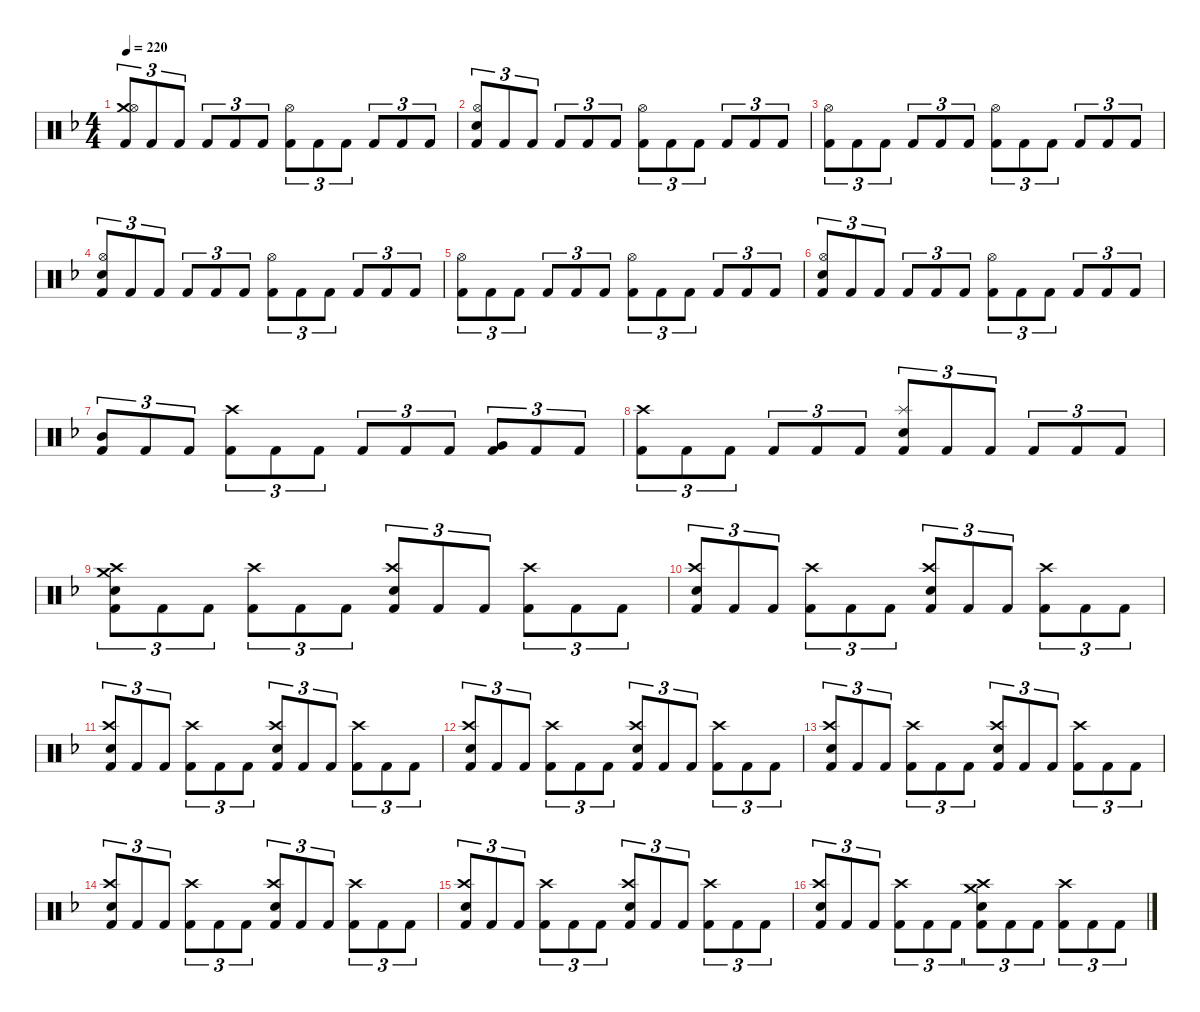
\hideDynamics
\bracketExtendMode nobrackets
\singleTrackTrackNamePolicy hidden
\multiTrackTrackNamePolicy hidden
\firstSystemTrackNameMode fullname
\firstSystemTrackNameOrientation horizontal
\otherSystemsTrackNameOrientation horizontal
\track ("Drumkit" "Drums") {instrument percussion}
\staff {score}
\articulation defaults
\ts (4 4)
\tempo 220
\clef neutral
\ks dminor
("Crash medium (hit)"{acc forcenatural} "Hi-Hat (open)"{acc forcenatural} "Kick (hit) 2"{acc forcenatural}).8{tu (3 2) dy f beam Up} "Kick (hit) 2"{acc forcenatural}.8{tu (3 2) beam Up} "Kick (hit) 2"{acc forcenatural}.8{tu (3 2) beam Up} "Kick (hit) 2"{acc forcenatural}.8{tu (3 2) beam Up} "Kick (hit) 2"{acc forcenatural}.8{tu (3 2) beam Up} "Kick (hit) 2"{acc forcenatural}.8{tu (3 2) beam Up} ("Hi-Hat (open)"{acc forcenatural} "Kick (hit) 2"{acc forcenatural}).8{tu (3 2) beam Down} "Kick (hit) 2"{acc forcenatural}.8{tu (3 2) beam Down} "Kick (hit) 2"{acc forcenatural}.8{tu (3 2) beam Down} "Kick (hit) 2"{acc forcenatural}.8{tu (3 2) beam Up} "Kick (hit) 2"{acc forcenatural}.8{tu (3 2) beam Up} "Kick (hit) 2"{acc forcenatural}.8{tu (3 2) beam Up} |
("Hi-Hat (open)"{acc forcenatural} "Snare (hit) 2"{acc forcenatural} "Kick (hit) 2"{acc forcenatural}).8{tu (3 2) beam Up} "Kick (hit) 2"{acc forcenatural}.8{tu (3 2) beam Up} "Kick (hit) 2"{acc forcenatural}.8{tu (3 2) beam Up} "Kick (hit) 2"{acc forcenatural}.8{tu (3 2) beam Up} "Kick (hit) 2"{acc forcenatural}.8{tu (3 2) beam Up} "Kick (hit) 2"{acc forcenatural}.8{tu (3 2) beam Up} ("Hi-Hat (open)"{acc forcenatural} "Kick (hit) 2"{acc forcenatural}).8{tu (3 2) beam Down} "Kick (hit) 2"{acc forcenatural}.8{tu (3 2) beam Down} "Kick (hit) 2"{acc forcenatural}.8{tu (3 2) beam Down} "Kick (hit) 2"{acc forcenatural}.8{tu (3 2) beam Up} "Kick (hit) 2"{acc forcenatural}.8{tu (3 2) beam Up} "Kick (hit) 2"{acc forcenatural}.8{tu (3 2) beam Up} |
("Hi-Hat (open)"{acc forcenatural} "Kick (hit) 2"{acc forcenatural}).8{tu (3 2) beam Down} "Kick (hit) 2"{acc forcenatural}.8{tu (3 2) beam Down} "Kick (hit) 2"{acc forcenatural}.8{tu (3 2) beam Down} "Kick (hit) 2"{acc forcenatural}.8{tu (3 2) beam Up} "Kick (hit) 2"{acc forcenatural}.8{tu (3 2) beam Up} "Kick (hit) 2"{acc forcenatural}.8{tu (3 2) beam Up} ("Hi-Hat (open)"{acc forcenatural} "Kick (hit) 2"{acc forcenatural}).8{tu (3 2) beam Down} "Kick (hit) 2"{acc forcenatural}.8{tu (3 2) beam Down} "Kick (hit) 2"{acc forcenatural}.8{tu (3 2) beam Down} "Kick (hit) 2"{acc forcenatural}.8{tu (3 2) beam Up} "Kick (hit) 2"{acc forcenatural}.8{tu (3 2) beam Up} "Kick (hit) 2"{acc forcenatural}.8{tu (3 2) beam Up} |
("Hi-Hat (open)"{acc forcenatural} "Snare (hit) 2"{acc forcenatural} "Kick (hit) 2"{acc forcenatural}).8{tu (3 2) beam Up} "Kick (hit) 2"{acc forcenatural}.8{tu (3 2) beam Up} "Kick (hit) 2"{acc forcenatural}.8{tu (3 2) beam Up} "Kick (hit) 2"{acc forcenatural}.8{tu (3 2) beam Up} "Kick (hit) 2"{acc forcenatural}.8{tu (3 2) beam Up} "Kick (hit) 2"{acc forcenatural}.8{tu (3 2) beam Up} ("Hi-Hat (open)"{acc forcenatural} "Kick (hit) 2"{acc forcenatural}).8{tu (3 2) beam Down} "Kick (hit) 2"{acc forcenatural}.8{tu (3 2) beam Down} "Kick (hit) 2"{acc forcenatural}.8{tu (3 2) beam Down} "Kick (hit) 2"{acc forcenatural}.8{tu (3 2) beam Up} "Kick (hit) 2"{acc forcenatural}.8{tu (3 2) beam Up} "Kick (hit) 2"{acc forcenatural}.8{tu (3 2) beam Up} |
("Hi-Hat (open)"{acc forcenatural} "Kick (hit) 2"{acc forcenatural}).8{tu (3 2) beam Down} "Kick (hit) 2"{acc forcenatural}.8{tu (3 2) beam Down} "Kick (hit) 2"{acc forcenatural}.8{tu (3 2) beam Down} "Kick (hit) 2"{acc forcenatural}.8{tu (3 2) beam Up} "Kick (hit) 2"{acc forcenatural}.8{tu (3 2) beam Up} "Kick (hit) 2"{acc forcenatural}.8{tu (3 2) beam Up} ("Hi-Hat (open)"{acc forcenatural} "Kick (hit) 2"{acc forcenatural}).8{tu (3 2) beam Down} "Kick (hit) 2"{acc forcenatural}.8{tu (3 2) beam Down} "Kick (hit) 2"{acc forcenatural}.8{tu (3 2) beam Down} "Kick (hit) 2"{acc forcenatural}.8{tu (3 2) beam Up} "Kick (hit) 2"{acc forcenatural}.8{tu (3 2) beam Up} "Kick (hit) 2"{acc forcenatural}.8{tu (3 2) beam Up} |
("Hi-Hat (open)"{acc forcenatural} "Snare (hit) 2"{acc forcenatural} "Kick (hit) 2"{acc forcenatural}).8{tu (3 2) beam Up} "Kick (hit) 2"{acc forcenatural}.8{tu (3 2) beam Up} "Kick (hit) 2"{acc forcenatural}.8{tu (3 2) beam Up} "Kick (hit) 2"{acc forcenatural}.8{tu (3 2) beam Up} "Kick (hit) 2"{acc forcenatural}.8{tu (3 2) beam Up} "Kick (hit) 2"{acc forcenatural}.8{tu (3 2) beam Up} ("Hi-Hat (open)"{acc forcenatural} "Kick (hit) 2"{acc forcenatural}).8{tu (3 2) beam Down} "Kick (hit) 2"{acc forcenatural}.8{tu (3 2) beam Down} "Kick (hit) 2"{acc forcenatural}.8{tu (3 2) beam Down} "Kick (hit) 2"{acc forcenatural}.8{tu (3 2) beam Up} "Kick (hit) 2"{acc forcenatural}.8{tu (3 2) beam Up} "Kick (hit) 2"{acc forcenatural}.8{tu (3 2) beam Up} |
("Mid Tom (hit)"{acc forcenatural} "Kick (hit) 2"{acc forcenatural}).8{tu (3 2) beam Up} "Kick (hit) 2"{acc forcenatural}.8{tu (3 2) beam Up} "Kick (hit) 2"{acc forcenatural}.8{tu (3 2) beam Up} ("Crash high (hit)"{acc forcenatural} "Kick (hit) 2"{acc forcenatural}).8{tu (3 2) beam Down} "Kick (hit) 2"{acc forcenatural}.8{tu (3 2) beam Down} "Kick (hit) 2"{acc forcenatural}.8{tu (3 2) beam Down} "Kick (hit) 2"{acc forcenatural}.8{tu (3 2) beam Up} "Kick (hit) 2"{acc forcenatural}.8{tu (3 2) beam Up} "Kick (hit) 2"{acc forcenatural}.8{tu (3 2) beam Up} ("Very Low Tom (hit)"{acc forcenatural} "Kick (hit) 2"{acc forcenatural}).8{tu (3 2) beam Up} "Kick (hit) 2"{acc forcenatural}.8{tu (3 2) beam Up} "Kick (hit) 2"{acc forcenatural}.8{tu (3 2) beam Up} |
("Crash high (hit)"{acc forcenatural} "Kick (hit) 2"{acc forcenatural}).8{tu (3 2) beam Down} "Kick (hit) 2"{acc forcenatural}.8{tu (3 2) beam Down} "Kick (hit) 2"{acc forcenatural}.8{tu (3 2) beam Down} "Kick (hit) 2"{acc forcenatural}.8{tu (3 2) beam Up} "Kick (hit) 2"{acc forcenatural}.8{tu (3 2) beam Up} "Kick (hit) 2"{acc forcenatural}.8{tu (3 2) beam Up} ("Splash (hit)"{acc forcenatural} "Snare (hit) 2"{acc forcenatural} "Kick (hit) 2"{acc forcenatural}).8{tu (3 2) dy mf beam Up} "Kick (hit) 2"{acc forcenatural}.8{tu (3 2) dy f beam Up} "Kick (hit) 2"{acc forcenatural}.8{tu (3 2) beam Up} "Kick (hit) 2"{acc forcenatural}.8{tu (3 2) beam Up} "Kick (hit) 2"{acc forcenatural}.8{tu (3 2) beam Up} "Kick (hit) 2"{acc forcenatural}.8{tu (3 2) beam Up} |
("Crash medium (hit)"{acc forcenatural} "Crash high (hit)"{acc forcenatural} "Snare (hit) 2"{acc forcenatural} "Kick (hit) 2"{acc forcenatural}).8{tu (3 2) beam Down} "Kick (hit) 2"{acc forcenatural}.8{tu (3 2) beam Down} "Kick (hit) 2"{acc forcenatural}.8{tu (3 2) beam Down} ("Crash high (hit)"{acc forcenatural} "Kick (hit) 2"{acc forcenatural}).8{tu (3 2) dy mp beam Down} "Kick (hit) 2"{acc forcenatural}.8{tu (3 2) dy f beam Down} "Kick (hit) 2"{acc forcenatural}.8{tu (3 2) beam Down} ("Crash high (hit)"{acc forcenatural} "Snare (hit) 2"{acc forcenatural} "Kick (hit) 2"{acc forcenatural}).8{tu (3 2) beam Up} "Kick (hit) 2"{acc forcenatural}.8{tu (3 2) beam Up} "Kick (hit) 2"{acc forcenatural}.8{tu (3 2) beam Up} ("Crash high (hit)"{acc forcenatural} "Kick (hit) 2"{acc forcenatural}).8{tu (3 2) dy mp beam Down} "Kick (hit) 2"{acc forcenatural}.8{tu (3 2) dy f beam Down} "Kick (hit) 2"{acc forcenatural}.8{tu (3 2) beam Down} |
("Crash high (hit)"{acc forcenatural} "Snare (hit) 2"{acc forcenatural} "Kick (hit) 2"{acc forcenatural}).8{tu (3 2) beam Up} "Kick (hit) 2"{acc forcenatural}.8{tu (3 2) beam Up} "Kick (hit) 2"{acc forcenatural}.8{tu (3 2) beam Up} ("Crash high (hit)"{acc forcenatural} "Kick (hit) 2"{acc forcenatural}).8{tu (3 2) dy mp beam Down} "Kick (hit) 2"{acc forcenatural}.8{tu (3 2) dy f beam Down} "Kick (hit) 2"{acc forcenatural}.8{tu (3 2) beam Down} ("Crash high (hit)"{acc forcenatural} "Snare (hit) 2"{acc forcenatural} "Kick (hit) 2"{acc forcenatural}).8{tu (3 2) beam Up} "Kick (hit) 2"{acc forcenatural}.8{tu (3 2) beam Up} "Kick (hit) 2"{acc forcenatural}.8{tu (3 2) beam Up} ("Crash high (hit)"{acc forcenatural} "Kick (hit) 2"{acc forcenatural}).8{tu (3 2) dy mp beam Down} "Kick (hit) 2"{acc forcenatural}.8{tu (3 2) dy f beam Down} "Kick (hit) 2"{acc forcenatural}.8{tu (3 2) beam Down} |
("Crash high (hit)"{acc forcenatural} "Snare (hit) 2"{acc forcenatural} "Kick (hit) 2"{acc forcenatural}).8{tu (3 2) beam Up} "Kick (hit) 2"{acc forcenatural}.8{tu (3 2) beam Up} "Kick (hit) 2"{acc forcenatural}.8{tu (3 2) beam Up} ("Crash high (hit)"{acc forcenatural} "Kick (hit) 2"{acc forcenatural}).8{tu (3 2) dy mp beam Down} "Kick (hit) 2"{acc forcenatural}.8{tu (3 2) dy f beam Down} "Kick (hit) 2"{acc forcenatural}.8{tu (3 2) beam Down} ("Crash high (hit)"{acc forcenatural} "Snare (hit) 2"{acc forcenatural} "Kick (hit) 2"{acc forcenatural}).8{tu (3 2) beam Up} "Kick (hit) 2"{acc forcenatural}.8{tu (3 2) beam Up} "Kick (hit) 2"{acc forcenatural}.8{tu (3 2) beam Up} ("Crash high (hit)"{acc forcenatural} "Kick (hit) 2"{acc forcenatural}).8{tu (3 2) dy mp beam Down} "Kick (hit) 2"{acc forcenatural}.8{tu (3 2) dy f beam Down} "Kick (hit) 2"{acc forcenatural}.8{tu (3 2) beam Down} |
("Crash high (hit)"{acc forcenatural} "Snare (hit) 2"{acc forcenatural} "Kick (hit) 2"{acc forcenatural}).8{tu (3 2) beam Up} "Kick (hit) 2"{acc forcenatural}.8{tu (3 2) beam Up} "Kick (hit) 2"{acc forcenatural}.8{tu (3 2) beam Up} ("Crash high (hit)"{acc forcenatural} "Kick (hit) 2"{acc forcenatural}).8{tu (3 2) dy mp beam Down} "Kick (hit) 2"{acc forcenatural}.8{tu (3 2) dy f beam Down} "Kick (hit) 2"{acc forcenatural}.8{tu (3 2) beam Down} ("Crash high (hit)"{acc forcenatural} "Snare (hit) 2"{acc forcenatural} "Kick (hit) 2"{acc forcenatural}).8{tu (3 2) beam Up} "Kick (hit) 2"{acc forcenatural}.8{tu (3 2) beam Up} "Kick (hit) 2"{acc forcenatural}.8{tu (3 2) beam Up} ("Crash high (hit)"{acc forcenatural} "Kick (hit) 2"{acc forcenatural}).8{tu (3 2) dy mp beam Down} "Kick (hit) 2"{acc forcenatural}.8{tu (3 2) dy f beam Down} "Kick (hit) 2"{acc forcenatural}.8{tu (3 2) beam Down} |
("Crash high (hit)"{acc forcenatural} "Snare (hit) 2"{acc forcenatural} "Kick (hit) 2"{acc forcenatural}).8{tu (3 2) beam Up} "Kick (hit) 2"{acc forcenatural}.8{tu (3 2) beam Up} "Kick (hit) 2"{acc forcenatural}.8{tu (3 2) beam Up} ("Crash high (hit)"{acc forcenatural} "Kick (hit) 2"{acc forcenatural}).8{tu (3 2) dy mp beam Down} "Kick (hit) 2"{acc forcenatural}.8{tu (3 2) dy f beam Down} "Kick (hit) 2"{acc forcenatural}.8{tu (3 2) beam Down} ("Crash high (hit)"{acc forcenatural} "Snare (hit) 2"{acc forcenatural} "Kick (hit) 2"{acc forcenatural}).8{tu (3 2) beam Up} "Kick (hit) 2"{acc forcenatural}.8{tu (3 2) beam Up} "Kick (hit) 2"{acc forcenatural}.8{tu (3 2) beam Up} ("Crash high (hit)"{acc forcenatural} "Kick (hit) 2"{acc forcenatural}).8{tu (3 2) dy mp beam Down} "Kick (hit) 2"{acc forcenatural}.8{tu (3 2) dy f beam Down} "Kick (hit) 2"{acc forcenatural}.8{tu (3 2) beam Down} |
("Crash high (hit)"{acc forcenatural} "Snare (hit) 2"{acc forcenatural} "Kick (hit) 2"{acc forcenatural}).8{tu (3 2) beam Up} "Kick (hit) 2"{acc forcenatural}.8{tu (3 2) beam Up} "Kick (hit) 2"{acc forcenatural}.8{tu (3 2) beam Up} ("Crash high (hit)"{acc forcenatural} "Kick (hit) 2"{acc forcenatural}).8{tu (3 2) dy mp beam Down} "Kick (hit) 2"{acc forcenatural}.8{tu (3 2) dy f beam Down} "Kick (hit) 2"{acc forcenatural}.8{tu (3 2) beam Down} ("Crash high (hit)"{acc forcenatural} "Snare (hit) 2"{acc forcenatural} "Kick (hit) 2"{acc forcenatural}).8{tu (3 2) beam Up} "Kick (hit) 2"{acc forcenatural}.8{tu (3 2) beam Up} "Kick (hit) 2"{acc forcenatural}.8{tu (3 2) beam Up} ("Crash high (hit)"{acc forcenatural} "Kick (hit) 2"{acc forcenatural}).8{tu (3 2) dy mp beam Down} "Kick (hit) 2"{acc forcenatural}.8{tu (3 2) dy f beam Down} "Kick (hit) 2"{acc forcenatural}.8{tu (3 2) beam Down} |
("Crash high (hit)"{acc forcenatural} "Snare (hit) 2"{acc forcenatural} "Kick (hit) 2"{acc forcenatural}).8{tu (3 2) beam Up} "Kick (hit) 2"{acc forcenatural}.8{tu (3 2) beam Up} "Kick (hit) 2"{acc forcenatural}.8{tu (3 2) beam Up} ("Crash high (hit)"{acc forcenatural} "Kick (hit) 2"{acc forcenatural}).8{tu (3 2) dy mp beam Down} "Kick (hit) 2"{acc forcenatural}.8{tu (3 2) dy f beam Down} "Kick (hit) 2"{acc forcenatural}.8{tu (3 2) beam Down} ("Crash high (hit)"{acc forcenatural} "Snare (hit) 2"{acc forcenatural} "Kick (hit) 2"{acc forcenatural}).8{tu (3 2) beam Up} "Kick (hit) 2"{acc forcenatural}.8{tu (3 2) beam Up} "Kick (hit) 2"{acc forcenatural}.8{tu (3 2) beam Up} ("Crash high (hit)"{acc forcenatural} "Kick (hit) 2"{acc forcenatural}).8{tu (3 2) dy mp beam Down} "Kick (hit) 2"{acc forcenatural}.8{tu (3 2) dy f beam Down} "Kick (hit) 2"{acc forcenatural}.8{tu (3 2) beam Down} |
("Crash high (hit)"{acc forcenatural} "Snare (hit) 2"{acc forcenatural} "Kick (hit) 2"{acc forcenatural}).8{tu (3 2) beam Up} "Kick (hit) 2"{acc forcenatural}.8{tu (3 2) beam Up} "Kick (hit) 2"{acc forcenatural}.8{tu (3 2) beam Up} ("Crash high (hit)"{acc forcenatural} "Kick (hit) 2"{acc forcenatural}).8{tu (3 2) dy mp beam Down} "Kick (hit) 2"{acc forcenatural}.8{tu (3 2) dy f beam Down} "Kick (hit) 2"{acc forcenatural}.8{tu (3 2) beam Down} ("Crash medium (hit)"{acc forcenatural} "Crash high (hit)"{acc forcenatural} "Snare (hit) 2"{acc forcenatural} "Kick (hit) 2"{acc forcenatural}).8{tu (3 2) beam Down} "Kick (hit) 2"{acc forcenatural}.8{tu (3 2) beam Down} "Kick (hit) 2"{acc forcenatural}.8{tu (3 2) beam Down} ("Crash high (hit)"{acc forcenatural} "Kick (hit) 2"{acc forcenatural}).8{tu (3 2) dy mp beam Down} "Kick (hit) 2"{acc forcenatural}.8{tu (3 2) dy f beam Down} "Kick (hit) 2"{acc forcenatural}.8{tu (3 2) beam Down}
